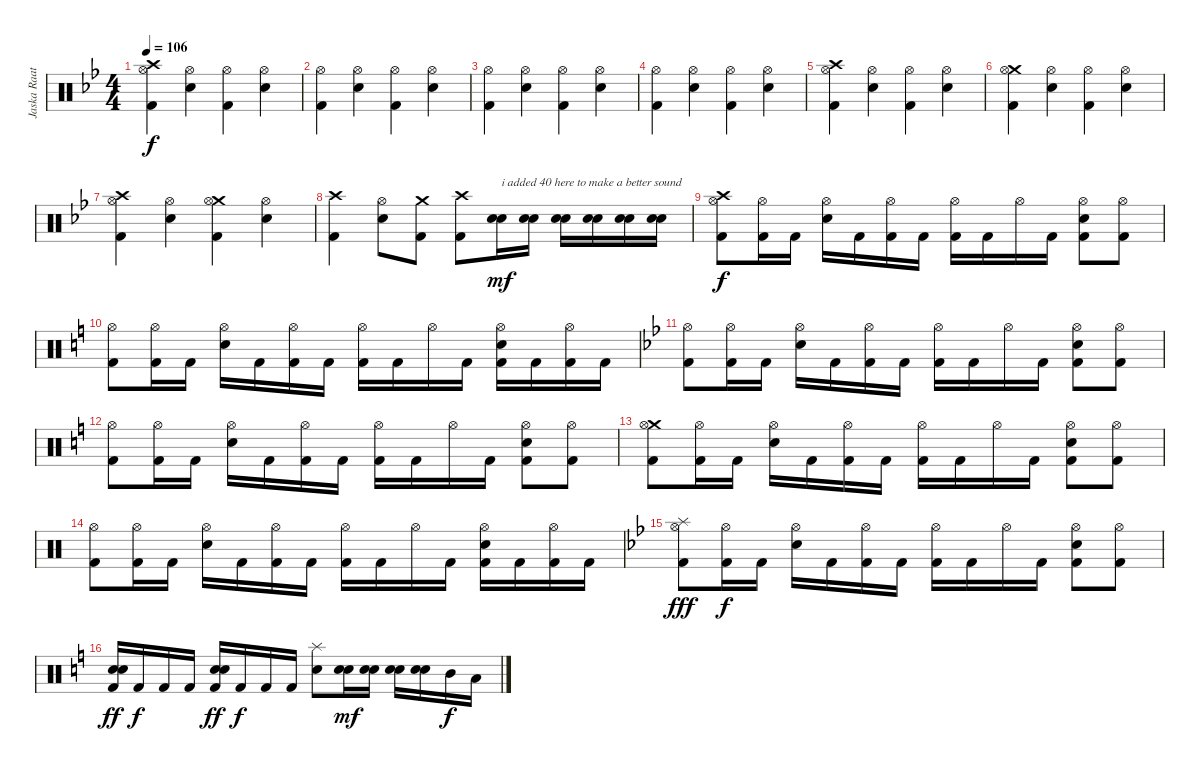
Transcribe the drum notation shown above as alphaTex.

\track ("Jaska Raatikainen" "Jaska Raat") {instrument percussion}
\staff {score}
\articulation defaults
\ts (4 4)
\tempo 106
\clef neutral
\ks bb
("Kick (hit) 2" "Crash high (hit)" "Hi-Hat (open)").4{dy f} ("Hi-Hat (open)" "Snare (hit) 2").4 ("Kick (hit) 2" "Hi-Hat (open)").4 ("Hi-Hat (open)" "Snare (hit) 2").4 |
("Kick (hit) 2" "Hi-Hat (open)").4 ("Hi-Hat (open)" "Snare (hit) 2").4 ("Kick (hit) 2" "Hi-Hat (open)").4 ("Hi-Hat (open)" "Snare (hit) 2").4 |
("Kick (hit) 2" "Hi-Hat (open)").4 ("Hi-Hat (open)" "Snare (hit) 2").4 ("Kick (hit) 2" "Hi-Hat (open)").4 ("Hi-Hat (open)" "Snare (hit) 2").4 |
("Kick (hit) 2" "Hi-Hat (open)").4 ("Hi-Hat (open)" "Snare (hit) 2").4 ("Kick (hit) 2" "Hi-Hat (open)").4 ("Hi-Hat (open)" "Snare (hit) 2").4 |
("Kick (hit) 2" "Crash high (hit)" "Hi-Hat (open)").4 ("Hi-Hat (open)" "Snare (hit) 2").4 ("Kick (hit) 2" "Hi-Hat (open)").4 ("Hi-Hat (open)" "Snare (hit) 2").4 |
("Kick (hit) 2" "Crash medium (hit)" "Hi-Hat (open)").4 ("Hi-Hat (open)" "Snare (hit) 2").4 ("Kick (hit) 2" "Hi-Hat (open)").4 ("Hi-Hat (open)" "Snare (hit) 2").4 |
("Kick (hit) 2" "Crash high (hit)" "Hi-Hat (open)").4 ("Hi-Hat (open)" "Snare (hit) 2").4 ("Kick (hit) 2" "Crash medium (hit)" "Hi-Hat (open)").4 ("Hi-Hat (open)" "Snare (hit) 2").4 |
("Kick (hit) 2" "Crash high (hit)").4 ("Hi-Hat (open)" "Snare (hit) 2").8 ("Kick (hit) 2" "Crash medium (hit)").8 ("Kick (hit) 2" "Crash high (hit)").8 ("Electric Snare (hit)" "Snare (hit) 2").16{txt "i added 40 here to make a better sound" dy mf} ("Electric Snare (hit)" "Snare (hit) 2").16 ("Electric Snare (hit)" "Snare (hit) 2").16 ("Electric Snare (hit)" "Snare (hit) 2").16 ("Electric Snare (hit)" "Snare (hit) 2").16 ("Electric Snare (hit)" "Snare (hit) 2").16 |
("Kick (hit) 2" "Crash high (hit)" "Hi-Hat (open)").8{dy f} ("Kick (hit) 2" "Hi-Hat (open)").16 "Kick (hit) 2".16 ("Hi-Hat (open)" "Snare (hit) 2").16 "Kick (hit) 2".16 ("Kick (hit) 2" "Hi-Hat (open)").16 "Kick (hit) 2".16 ("Kick (hit) 2" "Hi-Hat (open)").16 "Kick (hit) 2".16 "Hi-Hat (open)".16 "Kick (hit) 2".16 ("Kick (hit) 2" "Hi-Hat (open)" "Snare (hit) 2").8 ("Kick (hit) 2" "Hi-Hat (open)").8 |
\ks c
("Kick (hit) 2" "Hi-Hat (open)").8 ("Kick (hit) 2" "Hi-Hat (open)").16 "Kick (hit) 2".16 ("Hi-Hat (open)" "Snare (hit) 2").16 "Kick (hit) 2".16 ("Kick (hit) 2" "Hi-Hat (open)").16 "Kick (hit) 2".16 ("Kick (hit) 2" "Hi-Hat (open)").16 "Kick (hit) 2".16 "Hi-Hat (open)".16 "Kick (hit) 2".16 ("Kick (hit) 2" "Hi-Hat (open)" "Snare (hit) 2").16 "Kick (hit) 2".16 ("Kick (hit) 2" "Hi-Hat (open)").16 "Kick (hit) 2".16 |
\ks bb
("Kick (hit) 2" "Hi-Hat (open)").8 ("Kick (hit) 2" "Hi-Hat (open)").16 "Kick (hit) 2".16 ("Hi-Hat (open)" "Snare (hit) 2").16 "Kick (hit) 2".16 ("Kick (hit) 2" "Hi-Hat (open)").16 "Kick (hit) 2".16 ("Kick (hit) 2" "Hi-Hat (open)").16 "Kick (hit) 2".16 "Hi-Hat (open)".16 "Kick (hit) 2".16 ("Kick (hit) 2" "Hi-Hat (open)" "Snare (hit) 2").8 ("Kick (hit) 2" "Hi-Hat (open)").8 |
\ks c
("Kick (hit) 2" "Hi-Hat (open)").8 ("Kick (hit) 2" "Hi-Hat (open)").16 "Kick (hit) 2".16 ("Hi-Hat (open)" "Snare (hit) 2").16 "Kick (hit) 2".16 ("Kick (hit) 2" "Hi-Hat (open)").16 "Kick (hit) 2".16 ("Kick (hit) 2" "Hi-Hat (open)").16 "Kick (hit) 2".16 "Hi-Hat (open)".16 "Kick (hit) 2".16 ("Kick (hit) 2" "Hi-Hat (open)" "Snare (hit) 2").8 ("Kick (hit) 2" "Hi-Hat (open)").8 |
("Kick (hit) 2" "Crash medium (hit)" "Hi-Hat (open)").8 ("Kick (hit) 2" "Hi-Hat (open)").16 "Kick (hit) 2".16 ("Hi-Hat (open)" "Snare (hit) 2").16 "Kick (hit) 2".16 ("Kick (hit) 2" "Hi-Hat (open)").16 "Kick (hit) 2".16 ("Kick (hit) 2" "Hi-Hat (open)").16 "Kick (hit) 2".16 "Hi-Hat (open)".16 "Kick (hit) 2".16 ("Kick (hit) 2" "Hi-Hat (open)" "Snare (hit) 2").8 ("Kick (hit) 2" "Hi-Hat (open)").8 |
("Kick (hit) 2" "Hi-Hat (open)").8 ("Kick (hit) 2" "Hi-Hat (open)").16 "Kick (hit) 2".16 ("Hi-Hat (open)" "Snare (hit) 2").16 "Kick (hit) 2".16 ("Kick (hit) 2" "Hi-Hat (open)").16 "Kick (hit) 2".16 ("Kick (hit) 2" "Hi-Hat (open)").16 "Kick (hit) 2".16 "Hi-Hat (open)".16 "Kick (hit) 2".16 ("Kick (hit) 2" "Hi-Hat (open)" "Snare (hit) 2").16 "Kick (hit) 2".16 ("Kick (hit) 2" "Hi-Hat (open)").16 "Kick (hit) 2".16 |
\ks bb
("Kick (hit) 2" "Splash (hit)" "Hi-Hat (open)").8{dy fff} ("Kick (hit) 2" "Hi-Hat (open)").16{dy f} "Kick (hit) 2".16 ("Hi-Hat (open)" "Snare (hit) 2").16 "Kick (hit) 2".16 ("Kick (hit) 2" "Hi-Hat (open)").16 "Kick (hit) 2".16 ("Kick (hit) 2" "Hi-Hat (open)").16 "Kick (hit) 2".16 "Hi-Hat (open)".16 "Kick (hit) 2".16 ("Kick (hit) 2" "Hi-Hat (open)" "Snare (hit) 2").8 ("Kick (hit) 2" "Hi-Hat (open)").8 |
\ks c
("Kick (hit) 2" "Electric Snare (hit)" "Snare (hit) 2").16{dy ff} "Kick (hit) 2".16{dy f} "Kick (hit) 2".16 "Kick (hit) 2".16 ("Kick (hit) 2" "Electric Snare (hit)" "Snare (hit) 2").16{dy ff} "Kick (hit) 2".16{dy f} "Kick (hit) 2".16 "Kick (hit) 2".16 ("Splash (hit)" "Snare (hit) 2").8 ("Electric Snare (hit)" "Snare (hit) 2").16{dy mf} ("Electric Snare (hit)" "Snare (hit) 2").16 ("Electric Snare (hit)" "Snare (hit) 2").16 ("Electric Snare (hit)" "Snare (hit) 2").16 "Mid Tom (hit)".16{dy f} "Low Tom (hit)".16
